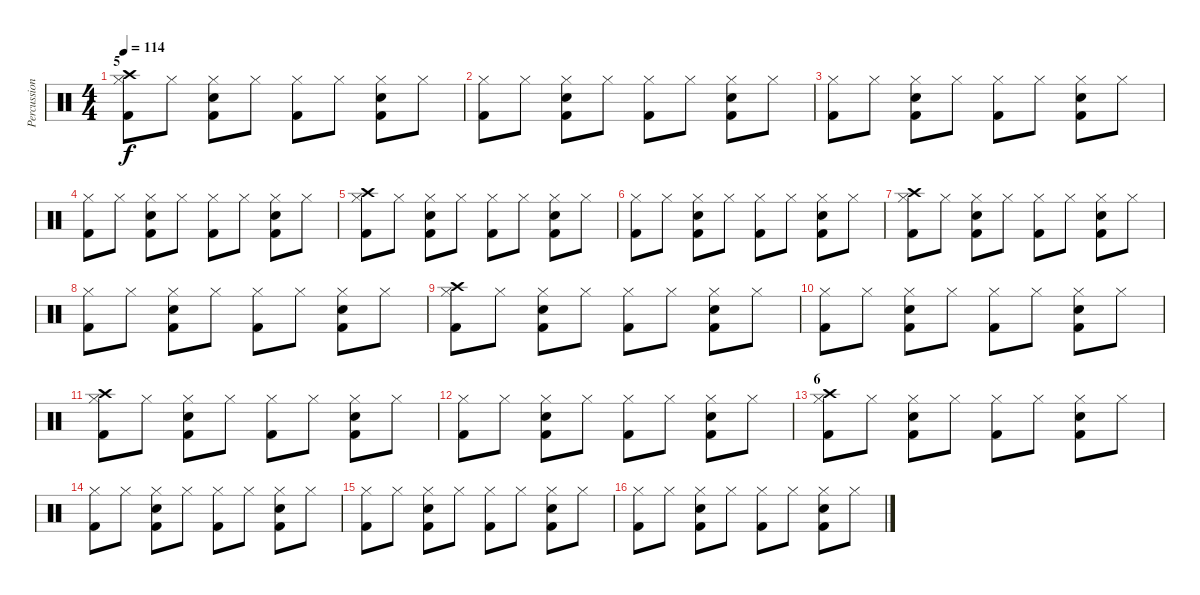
\track ("Percussions" "Percussion") {instrument percussion}
\staff {score}
\articulation defaults
\ts (4 4)
\section ("" "5")
\tempo 114
\clef neutral
\ks c
("Kick (hit) 2" "Hi-Hat (closed)" "Crash high (hit)").8{dy f} "Hi-Hat (closed)".8 ("Kick (hit) 2" "Hi-Hat (closed)" "Snare (hit) 2").8 "Hi-Hat (closed)".8 ("Kick (hit) 2" "Hi-Hat (closed)").8 "Hi-Hat (closed)".8 ("Kick (hit) 2" "Hi-Hat (closed)" "Snare (hit) 2").8 "Hi-Hat (closed)".8 |
("Kick (hit) 2" "Hi-Hat (closed)").8 "Hi-Hat (closed)".8 ("Kick (hit) 2" "Hi-Hat (closed)" "Snare (hit) 2").8 "Hi-Hat (closed)".8 ("Kick (hit) 2" "Hi-Hat (closed)").8 "Hi-Hat (closed)".8 ("Kick (hit) 2" "Hi-Hat (closed)" "Snare (hit) 2").8 "Hi-Hat (closed)".8 |
("Kick (hit) 2" "Hi-Hat (closed)").8 "Hi-Hat (closed)".8 ("Kick (hit) 2" "Hi-Hat (closed)" "Snare (hit) 2").8 "Hi-Hat (closed)".8 ("Kick (hit) 2" "Hi-Hat (closed)").8 "Hi-Hat (closed)".8 ("Kick (hit) 2" "Hi-Hat (closed)" "Snare (hit) 2").8 "Hi-Hat (closed)".8 |
("Kick (hit) 2" "Hi-Hat (closed)").8 "Hi-Hat (closed)".8 ("Kick (hit) 2" "Hi-Hat (closed)" "Snare (hit) 2").8 "Hi-Hat (closed)".8 ("Kick (hit) 2" "Hi-Hat (closed)").8 "Hi-Hat (closed)".8 ("Kick (hit) 2" "Hi-Hat (closed)" "Snare (hit) 2").8 "Hi-Hat (closed)".8 |
("Kick (hit) 2" "Hi-Hat (closed)" "Crash high (hit)").8 "Hi-Hat (closed)".8 ("Kick (hit) 2" "Hi-Hat (closed)" "Snare (hit) 2").8 "Hi-Hat (closed)".8 ("Kick (hit) 2" "Hi-Hat (closed)").8 "Hi-Hat (closed)".8 ("Kick (hit) 2" "Hi-Hat (closed)" "Snare (hit) 2").8 "Hi-Hat (closed)".8 |
("Kick (hit) 2" "Hi-Hat (closed)").8 "Hi-Hat (closed)".8 ("Kick (hit) 2" "Hi-Hat (closed)" "Snare (hit) 2").8 "Hi-Hat (closed)".8 ("Kick (hit) 2" "Hi-Hat (closed)").8 "Hi-Hat (closed)".8 ("Kick (hit) 2" "Hi-Hat (closed)" "Snare (hit) 2").8 "Hi-Hat (closed)".8 |
("Kick (hit) 2" "Hi-Hat (closed)" "Crash high (hit)").8 "Hi-Hat (closed)".8 ("Kick (hit) 2" "Hi-Hat (closed)" "Snare (hit) 2").8 "Hi-Hat (closed)".8 ("Kick (hit) 2" "Hi-Hat (closed)").8 "Hi-Hat (closed)".8 ("Kick (hit) 2" "Hi-Hat (closed)" "Snare (hit) 2").8 "Hi-Hat (closed)".8 |
("Kick (hit) 2" "Hi-Hat (closed)").8 "Hi-Hat (closed)".8 ("Kick (hit) 2" "Hi-Hat (closed)" "Snare (hit) 2").8 "Hi-Hat (closed)".8 ("Kick (hit) 2" "Hi-Hat (closed)").8 "Hi-Hat (closed)".8 ("Kick (hit) 2" "Hi-Hat (closed)" "Snare (hit) 2").8 "Hi-Hat (closed)".8 |
("Kick (hit) 2" "Hi-Hat (closed)" "Crash high (hit)").8 "Hi-Hat (closed)".8 ("Kick (hit) 2" "Hi-Hat (closed)" "Snare (hit) 2").8 "Hi-Hat (closed)".8 ("Kick (hit) 2" "Hi-Hat (closed)").8 "Hi-Hat (closed)".8 ("Kick (hit) 2" "Hi-Hat (closed)" "Snare (hit) 2").8 "Hi-Hat (closed)".8 |
("Kick (hit) 2" "Hi-Hat (closed)").8 "Hi-Hat (closed)".8 ("Kick (hit) 2" "Hi-Hat (closed)" "Snare (hit) 2").8 "Hi-Hat (closed)".8 ("Kick (hit) 2" "Hi-Hat (closed)").8 "Hi-Hat (closed)".8 ("Kick (hit) 2" "Hi-Hat (closed)" "Snare (hit) 2").8 "Hi-Hat (closed)".8 |
("Kick (hit) 2" "Hi-Hat (closed)" "Crash high (hit)").8 "Hi-Hat (closed)".8 ("Kick (hit) 2" "Hi-Hat (closed)" "Snare (hit) 2").8 "Hi-Hat (closed)".8 ("Kick (hit) 2" "Hi-Hat (closed)").8 "Hi-Hat (closed)".8 ("Kick (hit) 2" "Hi-Hat (closed)" "Snare (hit) 2").8 "Hi-Hat (closed)".8 |
("Kick (hit) 2" "Hi-Hat (closed)").8 "Hi-Hat (closed)".8 ("Kick (hit) 2" "Hi-Hat (closed)" "Snare (hit) 2").8 "Hi-Hat (closed)".8 ("Kick (hit) 2" "Hi-Hat (closed)").8 "Hi-Hat (closed)".8 ("Kick (hit) 2" "Hi-Hat (closed)" "Snare (hit) 2").8 "Hi-Hat (closed)".8 |
\section ("" "6")
("Kick (hit) 2" "Hi-Hat (closed)" "Crash high (hit)").8 "Hi-Hat (closed)".8 ("Kick (hit) 2" "Hi-Hat (closed)" "Snare (hit) 2").8 "Hi-Hat (closed)".8 ("Kick (hit) 2" "Hi-Hat (closed)").8 "Hi-Hat (closed)".8 ("Kick (hit) 2" "Hi-Hat (closed)" "Snare (hit) 2").8 "Hi-Hat (closed)".8 |
("Kick (hit) 2" "Hi-Hat (closed)").8 "Hi-Hat (closed)".8 ("Kick (hit) 2" "Hi-Hat (closed)" "Snare (hit) 2").8 "Hi-Hat (closed)".8 ("Kick (hit) 2" "Hi-Hat (closed)").8 "Hi-Hat (closed)".8 ("Kick (hit) 2" "Hi-Hat (closed)" "Snare (hit) 2").8 "Hi-Hat (closed)".8 |
("Kick (hit) 2" "Hi-Hat (closed)").8 "Hi-Hat (closed)".8 ("Kick (hit) 2" "Hi-Hat (closed)" "Snare (hit) 2").8 "Hi-Hat (closed)".8 ("Kick (hit) 2" "Hi-Hat (closed)").8 "Hi-Hat (closed)".8 ("Kick (hit) 2" "Hi-Hat (closed)" "Snare (hit) 2").8 "Hi-Hat (closed)".8 |
("Kick (hit) 2" "Hi-Hat (closed)").8 "Hi-Hat (closed)".8 ("Kick (hit) 2" "Hi-Hat (closed)" "Snare (hit) 2").8 "Hi-Hat (closed)".8 ("Kick (hit) 2" "Hi-Hat (closed)").8 "Hi-Hat (closed)".8 ("Kick (hit) 2" "Hi-Hat (closed)" "Snare (hit) 2").8 "Hi-Hat (closed)".8
